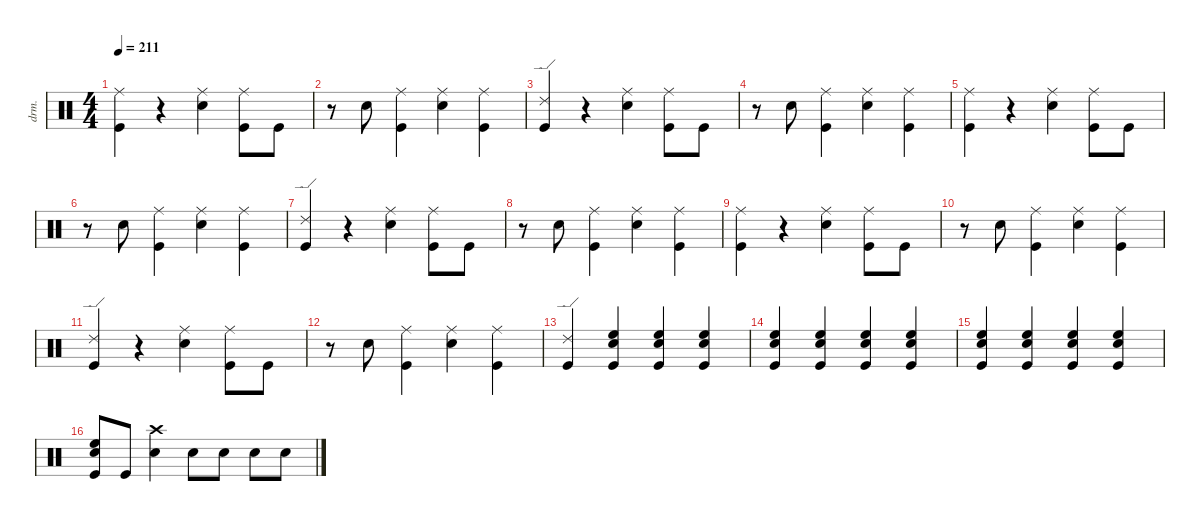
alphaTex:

\defaultSystemsLayout 4
\hideDynamics
\bracketExtendMode nobrackets
\otherSystemsTrackNameOrientation horizontal
\track ("Drums" "drm.") {instrument percussion}
\staff {score}
\articulation defaults
\ts (4 4)
\tempo 211
\clef neutral
\ks c
("Kick (hit)" "Ride (middle)"{acc #}).4{dy fff beam Down} r.4{beam Down} ("Snare (hit) 2" "Ride (middle)"{acc #}).4{dy ff beam Down} ("Kick (hit)" "Ride (middle)"{acc #}).8{dy f beam Down} "Kick (hit)".8{dy fff beam Down} |
r.8{beam Down} "Snare (hit) 2".8{dy p beam Down} ("Kick (hit)" "Ride (middle)"{acc #}).4{dy ff beam Down} ("Snare (hit) 2" "Ride (middle)"{acc #}).4{beam Down} ("Kick (hit)" "Ride (middle)"{acc #}).4{dy mf beam Down} |
("Kick (hit)" "Ride (edge) 2").4{dy fff beam Up} r.4{beam Up} ("Snare (hit) 2" "Ride (middle)"{acc #}).4{dy ff beam Down} ("Kick (hit)" "Ride (middle)"{acc #}).8{dy f beam Down} "Kick (hit)".8{dy fff beam Down} |
r.8{beam Down} "Snare (hit) 2".8{dy p beam Down} ("Kick (hit)" "Ride (middle)"{acc #}).4{dy ff beam Down} ("Snare (hit) 2" "Ride (middle)"{acc #}).4{beam Down} ("Kick (hit)" "Ride (middle)"{acc #}).4{dy mf beam Down} |
("Kick (hit)" "Ride (middle)"{acc #}).4{dy fff beam Down} r.4{beam Down} ("Snare (hit) 2" "Ride (middle)"{acc #}).4{dy ff beam Down} ("Kick (hit)" "Ride (middle)"{acc #}).8{dy f beam Down} "Kick (hit)".8{dy fff beam Down} |
r.8{beam Down} "Snare (hit) 2".8{dy p beam Down} ("Kick (hit)" "Ride (middle)"{acc #}).4{dy ff beam Down} ("Snare (hit) 2" "Ride (middle)"{acc #}).4{beam Down} ("Kick (hit)" "Ride (middle)"{acc #}).4{dy mf beam Down} |
("Kick (hit)" "Ride (edge) 2").4{dy fff beam Up} r.4{beam Up} ("Snare (hit) 2" "Ride (middle)"{acc #}).4{dy ff beam Down} ("Kick (hit)" "Ride (middle)"{acc #}).8{dy f beam Down} "Kick (hit)".8{dy fff beam Down} |
r.8{beam Down} "Snare (hit) 2".8{dy p beam Down} ("Kick (hit)" "Ride (middle)"{acc #}).4{dy ff beam Down} ("Snare (hit) 2" "Ride (middle)"{acc #}).4{beam Down} ("Kick (hit)" "Ride (middle)"{acc #}).4{dy mf beam Down} |
("Kick (hit)" "Ride (middle)"{acc #}).4{dy fff beam Down} r.4{beam Down} ("Snare (hit) 2" "Ride (middle)"{acc #}).4{dy ff beam Down} ("Kick (hit)" "Ride (middle)"{acc #}).8{dy f beam Down} "Kick (hit)".8{dy fff beam Down} |
r.8{beam Down} "Snare (hit) 2".8{dy p beam Down} ("Kick (hit)" "Ride (middle)"{acc #}).4{dy ff beam Down} ("Snare (hit) 2" "Ride (middle)"{acc #}).4{beam Down} ("Kick (hit)" "Ride (middle)"{acc #}).4{dy mf beam Down} |
("Kick (hit)" "Ride (edge) 2").4{dy fff beam Up} r.4{beam Up} ("Snare (hit) 2" "Ride (middle)"{acc #}).4{dy ff beam Down} ("Kick (hit)" "Ride (middle)"{acc #}).8{dy f beam Down} "Kick (hit)".8{dy fff beam Down} |
r.8{beam Down} "Snare (hit) 2".8{dy p beam Down} ("Kick (hit)" "Ride (middle)"{acc #}).4{dy ff beam Down} ("Snare (hit) 2" "Ride (middle)"{acc #}).4{beam Down} ("Kick (hit)" "Ride (middle)"{acc #}).4{dy mf beam Down} |
("Kick (hit)" "Ride (edge) 2").4{dy fff beam Up} ("Snare (hit) 2" "Kick (hit)" "High Floor Tom (hit)").4{dy ff beam Up} ("Kick (hit)" "Snare (hit) 2" "High Floor Tom (hit)").4{beam Up} ("Kick (hit)" "Snare (hit) 2" "High Floor Tom (hit)").4{beam Up} |
("Snare (hit) 2" "Kick (hit)" "High Floor Tom (hit)").4{beam Up} ("Kick (hit)" "Snare (hit) 2" "High Floor Tom (hit)").4{beam Up} ("Kick (hit)" "Snare (hit) 2" "High Floor Tom (hit)").4{beam Up} ("Snare (hit) 2" "Kick (hit)" "High Floor Tom (hit)").4{beam Up} |
("Kick (hit)" "Snare (hit) 2" "High Floor Tom (hit)").4{beam Up} ("Snare (hit) 2" "Kick (hit)" "High Floor Tom (hit)").4{beam Up} ("Snare (hit) 2" "Kick (hit)" "High Floor Tom (hit)").4{beam Up} ("Kick (hit)" "Snare (hit) 2" "High Floor Tom (hit)").4{beam Up} |
("Kick (hit)" "Snare (hit) 2" "High Floor Tom (hit)").8{dy f beam Up} "Kick (hit)".8{dy ff beam Up} ("Snare (hit) 2" "Crash high (hit)"{acc #}).4{dy fff beam Down} "Snare (hit) 2".8{beam Down} "Snare (hit) 2".8{dy f beam Down} "Snare (hit) 2".8{dy fff beam Down} "Snare (hit) 2".8{dy f beam Down}
